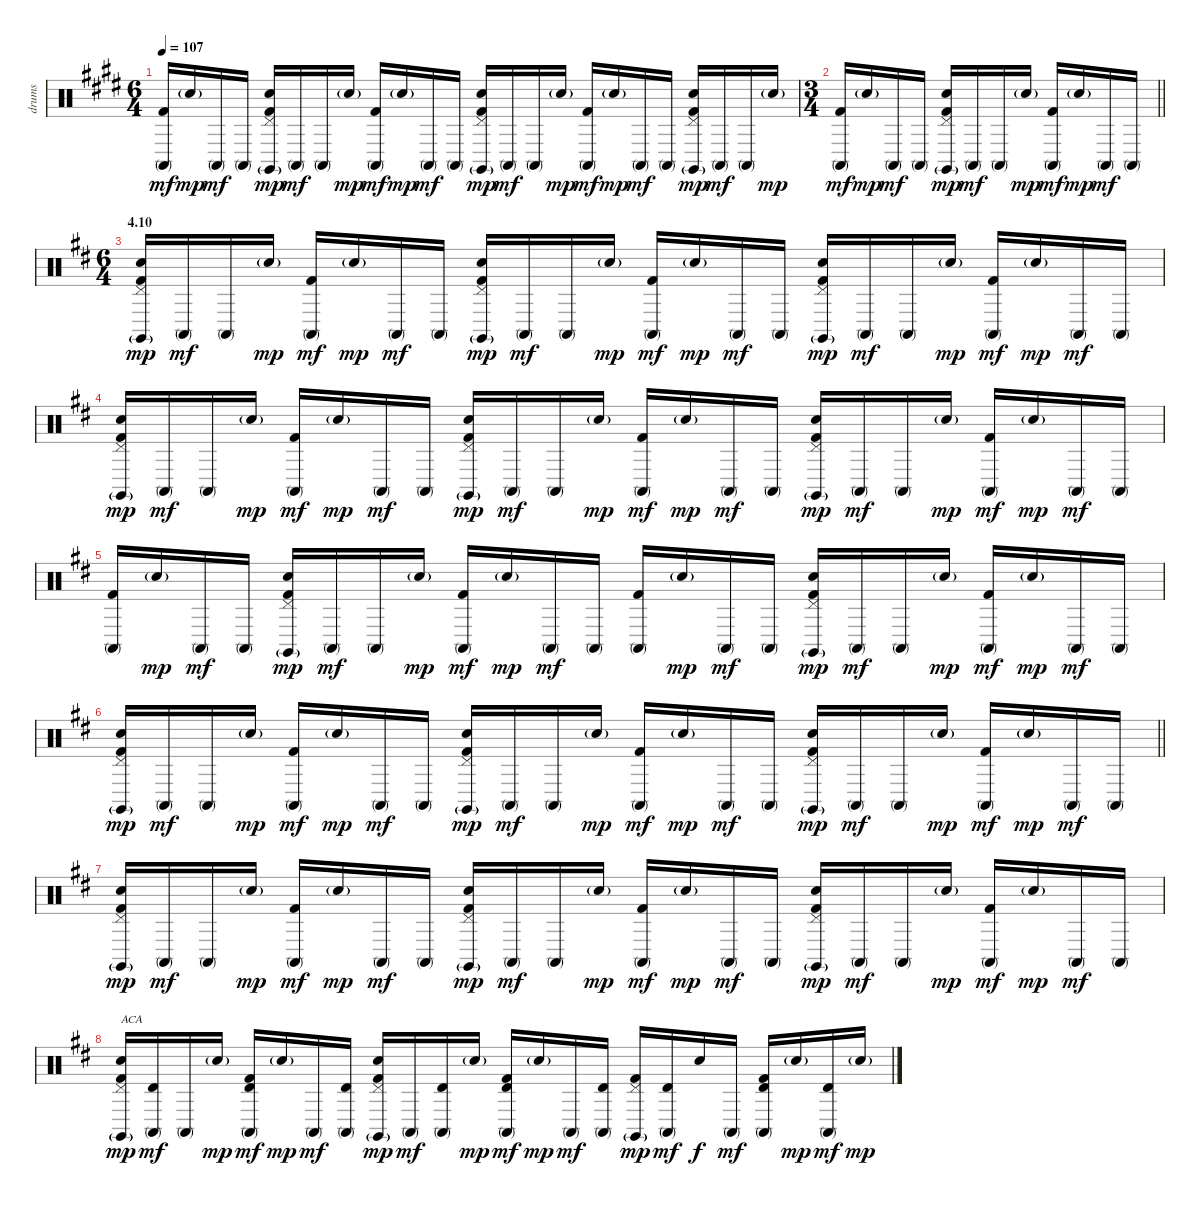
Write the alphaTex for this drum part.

\track ("drums" "drums") {instrument percussion}
\staff {score}
\articulation defaults
\ts (6 4)
\tempo 107
\clef neutral
\ks e
("Conga high (mute)" "Kick (hit) 2").16{dy mf} "Electric Snare (hit)"{g}.16{dy mp} "Conga high (mute)".16{dy mf} "Conga high (mute)".16 ("Pedal Hi-Hat (hit)" "Claves (hit)"{g} "Electric Snare (hit)" "Kick (hit) 2").16{dy mp} "Conga high (mute)".16{dy mf} "Conga high (mute)".16 "Electric Snare (hit)"{g}.16{dy mp} ("Conga high (mute)" "Kick (hit) 2").16{dy mf} "Electric Snare (hit)"{g}.16{dy mp} "Conga high (mute)".16{dy mf} "Conga high (mute)".16 ("Pedal Hi-Hat (hit)" "Claves (hit)"{g} "Electric Snare (hit)" "Kick (hit) 2").16{dy mp} "Conga high (mute)".16{dy mf} "Conga high (mute)".16 "Electric Snare (hit)"{g}.16{dy mp} ("Conga high (mute)" "Kick (hit) 2").16{dy mf} "Electric Snare (hit)"{g}.16{dy mp} "Conga high (mute)".16{dy mf} "Conga high (mute)".16 ("Pedal Hi-Hat (hit)" "Claves (hit)"{g} "Electric Snare (hit)" "Kick (hit) 2").16{dy mp} "Conga high (mute)".16{dy mf} "Conga high (mute)".16 "Electric Snare (hit)"{g}.16{dy mp} |
\ts (3 4)
\barLineRight lightlight
("Conga high (mute)" "Kick (hit) 2").16{dy mf} "Electric Snare (hit)"{g}.16{dy mp} "Conga high (mute)".16{dy mf} "Conga high (mute)".16 ("Pedal Hi-Hat (hit)" "Claves (hit)"{g} "Electric Snare (hit)" "Kick (hit) 2").16{dy mp} "Conga high (mute)".16{dy mf} "Conga high (mute)".16 "Electric Snare (hit)"{g}.16{dy mp} ("Conga high (mute)" "Kick (hit) 2").16{dy mf} "Electric Snare (hit)"{g}.16{dy mp} "Conga high (mute)".16{dy mf} "Conga high (mute)".16 |
\ts (6 4)
\section ("" "4.10")
\ks d
("Pedal Hi-Hat (hit)" "Claves (hit)"{g} "Electric Snare (hit)" "Kick (hit) 2").16{dy mp} "Conga high (mute)".16{dy mf} "Conga high (mute)".16 "Electric Snare (hit)"{g}.16{dy mp} ("Conga high (mute)" "Kick (hit) 2").16{dy mf} "Electric Snare (hit)"{g}.16{dy mp} "Conga high (mute)".16{dy mf} "Conga high (mute)".16 ("Pedal Hi-Hat (hit)" "Claves (hit)"{g} "Electric Snare (hit)" "Kick (hit) 2").16{dy mp} "Conga high (mute)".16{dy mf} "Conga high (mute)".16 "Electric Snare (hit)"{g}.16{dy mp} ("Conga high (mute)" "Kick (hit) 2").16{dy mf} "Electric Snare (hit)"{g}.16{dy mp} "Conga high (mute)".16{dy mf} "Conga high (mute)".16 ("Pedal Hi-Hat (hit)" "Claves (hit)"{g} "Electric Snare (hit)" "Kick (hit) 2").16{dy mp} "Conga high (mute)".16{dy mf} "Conga high (mute)".16 "Electric Snare (hit)"{g}.16{dy mp} ("Conga high (mute)" "Kick (hit) 2").16{dy mf} "Electric Snare (hit)"{g}.16{dy mp} "Conga high (mute)".16{dy mf} "Conga high (mute)".16 |
("Pedal Hi-Hat (hit)" "Claves (hit)"{g} "Electric Snare (hit)" "Kick (hit) 2").16{dy mp} "Conga high (mute)".16{dy mf} "Conga high (mute)".16 "Electric Snare (hit)"{g}.16{dy mp} ("Conga high (mute)" "Kick (hit) 2").16{dy mf} "Electric Snare (hit)"{g}.16{dy mp} "Conga high (mute)".16{dy mf} "Conga high (mute)".16 ("Pedal Hi-Hat (hit)" "Claves (hit)"{g} "Electric Snare (hit)" "Kick (hit) 2").16{dy mp} "Conga high (mute)".16{dy mf} "Conga high (mute)".16 "Electric Snare (hit)"{g}.16{dy mp} ("Conga high (mute)" "Kick (hit) 2").16{dy mf} "Electric Snare (hit)"{g}.16{dy mp} "Conga high (mute)".16{dy mf} "Conga high (mute)".16 ("Pedal Hi-Hat (hit)" "Claves (hit)"{g} "Electric Snare (hit)" "Kick (hit) 2").16{dy mp} "Conga high (mute)".16{dy mf} "Conga high (mute)".16 "Electric Snare (hit)"{g}.16{dy mp} ("Conga high (mute)" "Kick (hit) 2").16{dy mf} "Electric Snare (hit)"{g}.16{dy mp} "Conga high (mute)".16{dy mf} "Conga high (mute)".16 |
("Conga high (mute)" "Kick (hit) 2").16 "Electric Snare (hit)"{g}.16{dy mp} "Conga high (mute)".16{dy mf} "Conga high (mute)".16 ("Pedal Hi-Hat (hit)" "Claves (hit)"{g} "Electric Snare (hit)" "Kick (hit) 2").16{dy mp} "Conga high (mute)".16{dy mf} "Conga high (mute)".16 "Electric Snare (hit)"{g}.16{dy mp} ("Conga high (mute)" "Kick (hit) 2").16{dy mf} "Electric Snare (hit)"{g}.16{dy mp} "Conga high (mute)".16{dy mf} "Conga high (mute)".16 ("Conga high (mute)" "Kick (hit) 2").16 "Electric Snare (hit)"{g}.16{dy mp} "Conga high (mute)".16{dy mf} "Conga high (mute)".16 ("Pedal Hi-Hat (hit)" "Claves (hit)"{g} "Electric Snare (hit)" "Kick (hit) 2").16{dy mp} "Conga high (mute)".16{dy mf} "Conga high (mute)".16 "Electric Snare (hit)"{g}.16{dy mp} ("Conga high (mute)" "Kick (hit) 2").16{dy mf} "Electric Snare (hit)"{g}.16{dy mp} "Conga high (mute)".16{dy mf} "Conga high (mute)".16 |
\barLineRight lightlight
("Pedal Hi-Hat (hit)" "Claves (hit)"{g} "Electric Snare (hit)" "Kick (hit) 2").16{dy mp} "Conga high (mute)".16{dy mf} "Conga high (mute)".16 "Electric Snare (hit)"{g}.16{dy mp} ("Conga high (mute)" "Kick (hit) 2").16{dy mf} "Electric Snare (hit)"{g}.16{dy mp} "Conga high (mute)".16{dy mf} "Conga high (mute)".16 ("Pedal Hi-Hat (hit)" "Claves (hit)"{g} "Electric Snare (hit)" "Kick (hit) 2").16{dy mp} "Conga high (mute)".16{dy mf} "Conga high (mute)".16 "Electric Snare (hit)"{g}.16{dy mp} ("Conga high (mute)" "Kick (hit) 2").16{dy mf} "Electric Snare (hit)"{g}.16{dy mp} "Conga high (mute)".16{dy mf} "Conga high (mute)".16 ("Pedal Hi-Hat (hit)" "Claves (hit)"{g} "Electric Snare (hit)" "Kick (hit) 2").16{dy mp} "Conga high (mute)".16{dy mf} "Conga high (mute)".16 "Electric Snare (hit)"{g}.16{dy mp} ("Conga high (mute)" "Kick (hit) 2").16{dy mf} "Electric Snare (hit)"{g}.16{dy mp} "Conga high (mute)".16{dy mf} "Conga high (mute)".16 |
("Pedal Hi-Hat (hit)" "Claves (hit)"{g} "Electric Snare (hit)" "Kick (hit) 2").16{dy mp} "Conga high (mute)".16{dy mf} "Conga high (mute)".16 "Electric Snare (hit)"{g}.16{dy mp} ("Conga high (mute)" "Kick (hit) 2").16{dy mf} "Electric Snare (hit)"{g}.16{dy mp} "Conga high (mute)".16{dy mf} "Conga high (mute)".16 ("Pedal Hi-Hat (hit)" "Claves (hit)"{g} "Electric Snare (hit)" "Kick (hit) 2").16{dy mp} "Conga high (mute)".16{dy mf} "Conga high (mute)".16 "Electric Snare (hit)"{g}.16{dy mp} ("Conga high (mute)" "Kick (hit) 2").16{dy mf} "Electric Snare (hit)"{g}.16{dy mp} "Conga high (mute)".16{dy mf} "Conga high (mute)".16 ("Pedal Hi-Hat (hit)" "Claves (hit)"{g} "Electric Snare (hit)" "Kick (hit) 2").16{dy mp} "Conga high (mute)".16{dy mf} "Conga high (mute)".16 "Electric Snare (hit)"{g}.16{dy mp} ("Conga high (mute)" "Kick (hit) 2").16{dy mf} "Electric Snare (hit)"{g}.16{dy mp} "Conga high (mute)".16{dy mf} "Conga high (mute)".16 |
("Pedal Hi-Hat (hit)" "Claves (hit)"{g} "Electric Snare (hit)" "Kick (hit) 2").16{txt "ACA" dy mp} ("Conga high (mute)" "Timbale high (hit)").16{dy mf} "Conga high (mute)".16 "Electric Snare (hit)"{g}.16{dy mp} ("Conga high (mute)" "Timbale high (hit)" "Kick (hit) 2").16{dy mf} "Electric Snare (hit)"{g}.16{dy mp} "Conga high (mute)".16{dy mf} ("Conga high (mute)" "Timbale high (hit)").16 ("Pedal Hi-Hat (hit)" "Claves (hit)"{g} "Electric Snare (hit)" "Kick (hit) 2").16{dy mp} "Conga high (mute)".16{dy mf} ("Conga high (mute)" "Timbale high (hit)").16 "Electric Snare (hit)"{g}.16{dy mp} ("Conga high (mute)" "Timbale high (hit)" "Kick (hit) 2").16{dy mf} "Electric Snare (hit)"{g}.16{dy mp} "Conga high (mute)".16{dy mf} ("Conga high (mute)" "Timbale high (hit)").16 ("Pedal Hi-Hat (hit)" "Claves (hit)"{g} "Kick (hit) 2").16{dy mp} ("Conga high (mute)" "Timbale high (hit)").16{dy mf} "Electric Snare (hit)".16{dy f} "Conga high (mute)".16{dy mf} ("Conga high (mute)" "Timbale high (hit)" "Kick (hit) 2").16 "Electric Snare (hit)"{g}.16{dy mp} ("Conga high (mute)" "Timbale high (hit)").16{dy mf} "Electric Snare (hit)"{g}.16{dy mp}
